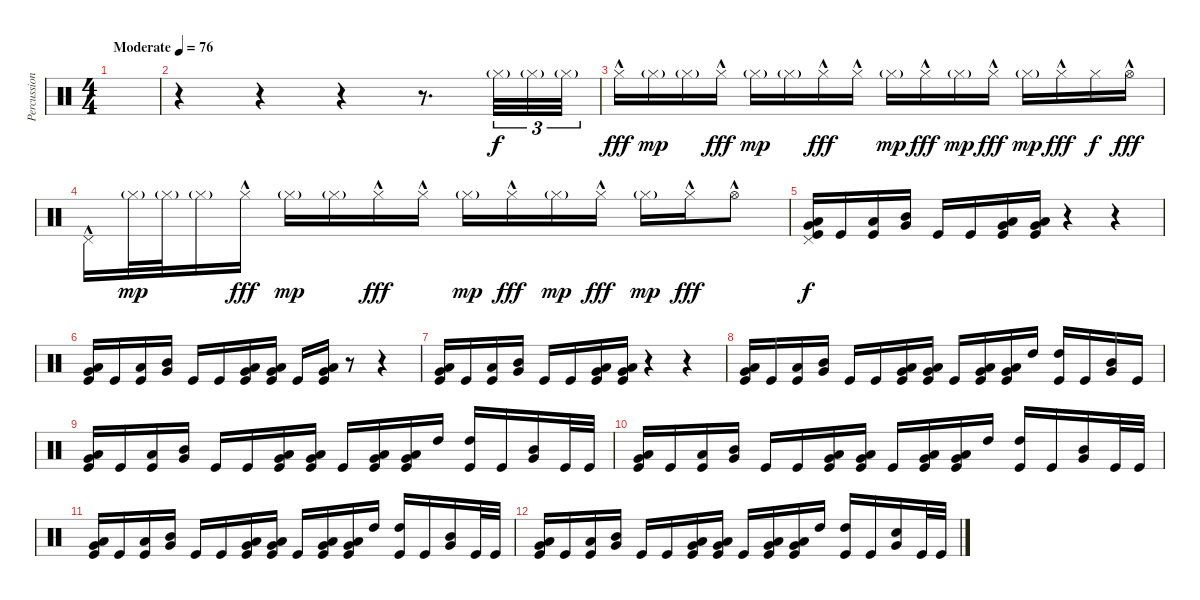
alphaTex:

\track ("Percussion" "Percussion") {instrument percussion}
\staff {score}
\articulation defaults
\ts (4 4)
\tempo (76 "Moderate")
\clef neutral
\ks c
|
r.4 r.4 r.4 r.8{d} "Hi-Hat (closed)"{g}.32{tu (3 2)} "Hi-Hat (closed)"{g}.32{tu (3 2)} "Hi-Hat (closed)"{g}.32{tu (3 2)} |
"Hi-Hat (closed)"{hac}.16{dy fff} "Hi-Hat (closed)"{g}.16{dy mp} "Hi-Hat (closed)"{g}.16 "Hi-Hat (closed)"{hac}.16{dy fff} "Hi-Hat (closed)"{g}.16{dy mp} "Hi-Hat (closed)"{g}.16 "Hi-Hat (closed)"{hac}.16{dy fff} "Hi-Hat (closed)"{hac}.16 "Hi-Hat (closed)"{g}.16{dy mp} "Hi-Hat (closed)"{hac}.16{dy fff} "Hi-Hat (closed)"{g}.16{dy mp} "Hi-Hat (closed)"{hac}.16{dy fff} "Hi-Hat (closed)"{g}.16{dy mp} "Hi-Hat (closed)"{hac}.16{dy fff} "Hi-Hat (closed)".16{dy f} "Hi-Hat (open)"{hac}.16{dy fff} |
"Pedal Hi-Hat (hit)"{hac}.16 "Hi-Hat (closed)"{g}.32{dy mp} "Hi-Hat (closed)"{g}.32 "Hi-Hat (closed)"{g}.16 "Hi-Hat (closed)"{hac}.16{dy fff} "Hi-Hat (closed)"{g}.16{dy mp} "Hi-Hat (closed)"{g}.16 "Hi-Hat (closed)"{hac}.16{dy fff} "Hi-Hat (closed)"{hac}.16 "Hi-Hat (closed)"{g}.16{dy mp} "Hi-Hat (closed)"{hac}.16{dy fff} "Hi-Hat (closed)"{g}.16{dy mp} "Hi-Hat (closed)"{hac}.16{dy fff} "Hi-Hat (closed)"{g}.16{dy mp} "Hi-Hat (closed)"{hac}.16{dy fff} "Hi-Hat (open)"{hac}.8 |
("Pedal Hi-Hat (hit)" "Kick (hit)" "Low Floor Tom (hit)" "Very Low Tom (hit)").16{dy f} "Kick (hit)".16 ("Kick (hit)" "Low Floor Tom (hit)").16 ("Very Low Tom (hit)" "Mid Tom (hit)").16 "Kick (hit)".16 "Kick (hit)".16 ("Low Floor Tom (hit)" "Very Low Tom (hit)" "Kick (hit)").16 ("Low Floor Tom (hit)" "Very Low Tom (hit)" "Kick (hit)").16 r.4 r.4 |
("Kick (hit)" "Low Floor Tom (hit)" "Very Low Tom (hit)").16 "Kick (hit)".16 ("Kick (hit)" "Low Floor Tom (hit)").16 ("Very Low Tom (hit)" "Mid Tom (hit)").16 "Kick (hit)".16 "Kick (hit)".16 ("Low Floor Tom (hit)" "Very Low Tom (hit)" "Kick (hit)").16 ("Low Floor Tom (hit)" "Very Low Tom (hit)" "Kick (hit)").16 "Kick (hit)".16 ("Low Floor Tom (hit)" "Very Low Tom (hit)" "Kick (hit)").16 r.8 r.4 |
("Kick (hit)" "Low Floor Tom (hit)" "Very Low Tom (hit)").16 "Kick (hit)".16 ("Kick (hit)" "Low Floor Tom (hit)").16 ("Very Low Tom (hit)" "Mid Tom (hit)").16 "Kick (hit)".16 "Kick (hit)".16 ("Low Floor Tom (hit)" "Very Low Tom (hit)" "Kick (hit)").16 ("Low Floor Tom (hit)" "Very Low Tom (hit)" "Kick (hit)").16 r.4 r.4 |
("Kick (hit)" "Low Floor Tom (hit)" "Very Low Tom (hit)").16 "Kick (hit)".16 ("Kick (hit)" "Low Floor Tom (hit)").16 ("Very Low Tom (hit)" "Mid Tom (hit)").16 "Kick (hit)".16 "Kick (hit)".16 ("Low Floor Tom (hit)" "Very Low Tom (hit)" "Kick (hit)").16 ("Low Floor Tom (hit)" "Very Low Tom (hit)" "Kick (hit)").16 "Kick (hit)".16 ("Low Floor Tom (hit)" "Very Low Tom (hit)" "Kick (hit)").16 ("Low Floor Tom (hit)" "Very Low Tom (hit)" "Kick (hit)").16 "High Tom (hit)".16 ("High Tom (hit)" "Kick (hit)").16 "Kick (hit)".16 ("Very Low Tom (hit)" "Mid Tom (hit)").16 "Kick (hit)".16 |
("Kick (hit)" "Low Floor Tom (hit)" "Very Low Tom (hit)").16 "Kick (hit)".16 ("Kick (hit)" "Low Floor Tom (hit)").16 ("Very Low Tom (hit)" "Mid Tom (hit)").16 "Kick (hit)".16 "Kick (hit)".16 ("Low Floor Tom (hit)" "Very Low Tom (hit)" "Kick (hit)").16 ("Low Floor Tom (hit)" "Very Low Tom (hit)" "Kick (hit)").16 "Kick (hit)".16 ("Low Floor Tom (hit)" "Very Low Tom (hit)" "Kick (hit)").16 ("Low Floor Tom (hit)" "Very Low Tom (hit)" "Kick (hit)").16 "High Tom (hit)".16 ("High Tom (hit)" "Kick (hit)").16 "Kick (hit)".16 ("Very Low Tom (hit)" "Mid Tom (hit)").16 "Kick (hit)".32 "Kick (hit)".32 |
("Kick (hit)" "Low Floor Tom (hit)" "Very Low Tom (hit)").16 "Kick (hit)".16 ("Kick (hit)" "Low Floor Tom (hit)").16 ("Very Low Tom (hit)" "Mid Tom (hit)").16 "Kick (hit)".16 "Kick (hit)".16 ("Low Floor Tom (hit)" "Very Low Tom (hit)" "Kick (hit)").16 ("Low Floor Tom (hit)" "Very Low Tom (hit)" "Kick (hit)").16 "Kick (hit)".16 ("Low Floor Tom (hit)" "Very Low Tom (hit)" "Kick (hit)").16 ("Low Floor Tom (hit)" "Very Low Tom (hit)" "Kick (hit)").16 "High Tom (hit)".16 ("High Tom (hit)" "Kick (hit)").16 "Kick (hit)".16 ("Very Low Tom (hit)" "Mid Tom (hit)").16 "Kick (hit)".32 "Kick (hit)".32 |
("Kick (hit)" "Low Floor Tom (hit)" "Very Low Tom (hit)").16 "Kick (hit)".16 ("Kick (hit)" "Low Floor Tom (hit)").16 ("Very Low Tom (hit)" "Mid Tom (hit)").16 "Kick (hit)".16 "Kick (hit)".16 ("Low Floor Tom (hit)" "Very Low Tom (hit)" "Kick (hit)").16 ("Low Floor Tom (hit)" "Very Low Tom (hit)" "Kick (hit)").16 "Kick (hit)".16 ("Low Floor Tom (hit)" "Very Low Tom (hit)" "Kick (hit)").16 ("Low Floor Tom (hit)" "Very Low Tom (hit)" "Kick (hit)").16 "High Tom (hit)".16 ("High Tom (hit)" "Kick (hit)").16 "Kick (hit)".16 ("Very Low Tom (hit)" "Mid Tom (hit)").16 "Kick (hit)".32 "Kick (hit)".32 |
("Kick (hit)" "Low Floor Tom (hit)" "Very Low Tom (hit)").16 "Kick (hit)".16 ("Kick (hit)" "Low Floor Tom (hit)").16 ("Very Low Tom (hit)" "Mid Tom (hit)").16 "Kick (hit)".16 "Kick (hit)".16 ("Low Floor Tom (hit)" "Very Low Tom (hit)" "Kick (hit)").16 ("Low Floor Tom (hit)" "Very Low Tom (hit)" "Kick (hit)").16 "Kick (hit)".16 ("Low Floor Tom (hit)" "Very Low Tom (hit)" "Kick (hit)").16 ("Low Floor Tom (hit)" "Very Low Tom (hit)" "Kick (hit)").16 "High Tom (hit)".16 ("High Tom (hit)" "Kick (hit)").16 "Kick (hit)".16 ("Very Low Tom (hit)" "Snare (hit) 2").16 "Kick (hit)".32 "Kick (hit)".32
